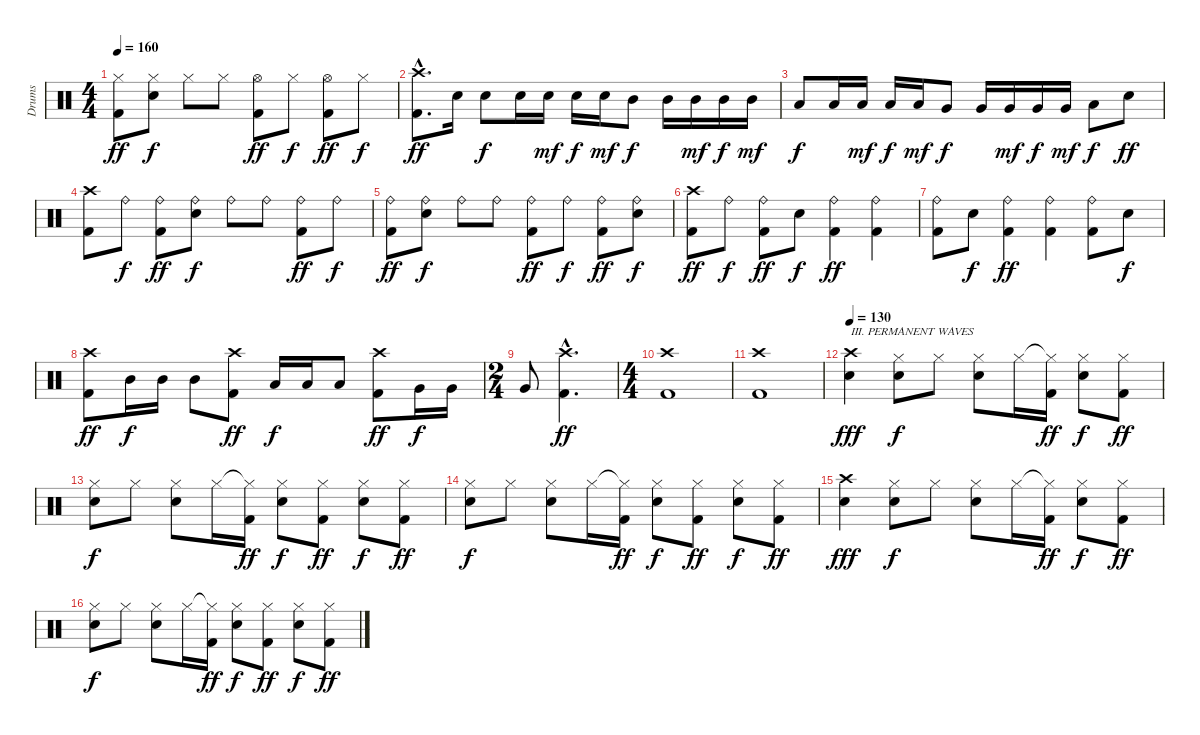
\track ("Drums" "Drums") {instrument percussion}
\staff {score}
\articulation defaults
\ts (4 4)
\tempo 160
\clef neutral
\ks c
("Hi-Hat (closed)" "Kick (hit) 2").8{dy ff} ("Hi-Hat (closed)" "Snare (hit) 2").8{dy f} "Hi-Hat (closed)".8 "Hi-Hat (closed)".8 ("Hi-Hat (open)" "Kick (hit) 2").8{dy ff} "Hi-Hat (closed)".8{dy f} ("Hi-Hat (open)" "Kick (hit) 2").8{dy ff} "Hi-Hat (closed)".8{dy f} |
("Crash high (hit)"{hac} "Kick (hit) 2"{hac}).8{d dy ff} "Snare (hit) 2".16 "Snare (hit) 2".8{dy f} "Snare (hit) 2".16 "Snare (hit) 2".16{dy mf} "Snare (hit) 2".16{dy f} "Snare (hit) 2".16{dy mf} "Mid Tom (hit)".8{dy f} "Mid Tom (hit)".16 "Mid Tom (hit)".16{dy mf} "Mid Tom (hit)".16{dy f} "Mid Tom (hit)".16{dy mf} |
"Low Tom (hit)".8{dy f} "Low Tom (hit)".16 "Low Tom (hit)".16{dy mf} "Low Tom (hit)".16{dy f} "Low Tom (hit)".16{dy mf} "Very Low Tom (hit)".8{dy f} "Very Low Tom (hit)".16 "Very Low Tom (hit)".16{dy mf} "Very Low Tom (hit)".16{dy f} "Very Low Tom (hit)".16{dy mf} "Low Floor Tom (hit)".8{dy f} "Snare (hit) 2".8{dy ff} |
("Crash high (hit)" "Kick (hit) 2").8 "Ride (bell)".8{dy f} ("Ride (bell)" "Kick (hit) 2").8{dy ff} ("Ride (bell)" "Snare (hit) 2").8{dy f} "Ride (bell)".8 "Ride (bell)".8 ("Ride (bell)" "Kick (hit) 2").8{dy ff} "Ride (bell)".8{dy f} |
("Ride (bell)" "Kick (hit) 2").8{dy ff} ("Ride (bell)" "Snare (hit) 2").8{dy f} "Ride (bell)".8 "Ride (bell)".8 ("Ride (bell)" "Kick (hit) 2").8{dy ff} "Ride (bell)".8{dy f} ("Ride (bell)" "Kick (hit) 2").8{dy ff} ("Ride (bell)" "Snare (hit) 2").8{dy f} |
("Crash high (hit)" "Kick (hit) 2").8{dy ff} "Ride (bell)".8{dy f} ("Ride (bell)" "Kick (hit) 2").8{dy ff} "Snare (hit) 2".8{dy f} ("Ride (bell)" "Kick (hit) 2").4{dy ff} ("Ride (bell)" "Kick (hit) 2").4 |
("Ride (bell)" "Kick (hit) 2").8 "Snare (hit) 2".8{dy f} ("Ride (bell)" "Kick (hit) 2").4{dy ff} ("Ride (bell)" "Kick (hit) 2").4 ("Ride (bell)" "Kick (hit) 2").8 "Snare (hit) 2".8{dy f} |
("Crash high (hit)" "Kick (hit) 2").8{dy ff} "Mid Tom (hit)".16{dy f} "Mid Tom (hit)".16 "Mid Tom (hit)".8 ("Crash high (hit)" "Kick (hit) 2").8{dy ff} "Low Tom (hit)".16{dy f} "Low Tom (hit)".16 "Low Tom (hit)".8 ("Crash high (hit)" "Kick (hit) 2").8{dy ff} "Very Low Tom (hit)".16{dy f} "Very Low Tom (hit)".16 |
\ts (2 4)
"Very Low Tom (hit)".8 ("Crash high (hit)"{hac} "Kick (hit) 2"{hac}).4{d dy ff} |
\ts (4 4)
("Crash high (hit)" "Kick (hit) 2").1 |
("Crash high (hit)" "Kick (hit) 2").1 |
\tempo 130
("Crash high (hit)" "Snare (hit) 2").4{txt "III. PERMANENT WAVES" dy fff} ("Hi-Hat (closed)" "Snare (hit) 2").8{dy f} "Hi-Hat (closed)".8 ("Hi-Hat (closed)" "Snare (hit) 2").8 "Hi-Hat (closed)".16 ("Hi-Hat (closed)"{t} "Kick (hit) 2").16{dy ff} ("Hi-Hat (closed)" "Snare (hit) 2").8{dy f} ("Hi-Hat (closed)" "Kick (hit) 2").8{dy ff} |
("Hi-Hat (closed)" "Snare (hit) 2").8{dy f} "Hi-Hat (closed)".8 ("Hi-Hat (closed)" "Snare (hit) 2").8 "Hi-Hat (closed)".16 ("Hi-Hat (closed)"{t} "Kick (hit) 2").16{dy ff} ("Hi-Hat (closed)" "Snare (hit) 2").8{dy f} ("Hi-Hat (closed)" "Kick (hit) 2").8{dy ff} ("Hi-Hat (closed)" "Snare (hit) 2").8{dy f} ("Hi-Hat (closed)" "Kick (hit) 2").8{dy ff} |
("Hi-Hat (closed)" "Snare (hit) 2").8{dy f} "Hi-Hat (closed)".8 ("Hi-Hat (closed)" "Snare (hit) 2").8 "Hi-Hat (closed)".16 ("Hi-Hat (closed)"{t} "Kick (hit) 2").16{dy ff} ("Hi-Hat (closed)" "Snare (hit) 2").8{dy f} ("Hi-Hat (closed)" "Kick (hit) 2").8{dy ff} ("Hi-Hat (closed)" "Snare (hit) 2").8{dy f} ("Hi-Hat (closed)" "Kick (hit) 2").8{dy ff} |
("Crash high (hit)" "Snare (hit) 2").4{dy fff} ("Hi-Hat (closed)" "Snare (hit) 2").8{dy f} "Hi-Hat (closed)".8 ("Hi-Hat (closed)" "Snare (hit) 2").8 "Hi-Hat (closed)".16 ("Hi-Hat (closed)"{t} "Kick (hit) 2").16{dy ff} ("Hi-Hat (closed)" "Snare (hit) 2").8{dy f} ("Hi-Hat (closed)" "Kick (hit) 2").8{dy ff} |
("Hi-Hat (closed)" "Snare (hit) 2").8{dy f} "Hi-Hat (closed)".8 ("Hi-Hat (closed)" "Snare (hit) 2").8 "Hi-Hat (closed)".16 ("Hi-Hat (closed)"{t} "Kick (hit) 2").16{dy ff} ("Hi-Hat (closed)" "Snare (hit) 2").8{dy f} ("Hi-Hat (closed)" "Kick (hit) 2").8{dy ff} ("Hi-Hat (closed)" "Snare (hit) 2").8{dy f} ("Hi-Hat (closed)" "Kick (hit) 2").8{dy ff}
